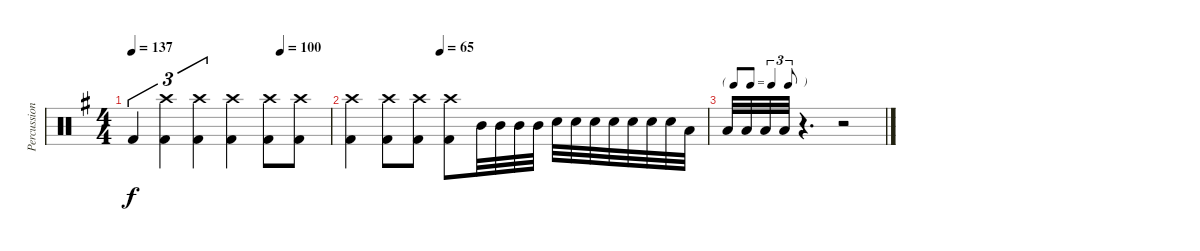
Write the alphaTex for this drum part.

\track ("Percussion" "Percussion") {instrument percussion}
\staff {score}
\articulation defaults
\ts (4 4)
\tempo 137
\tempo (100 0.75)
\clef neutral
\ks g "Kick (hit) 2".4{tu (3 2) dy f}
("Crash high (hit)" "Kick (hit) 2").4{tu (3 2)} ("Crash high (hit)" "Kick (hit) 2").4{tu (3 2)} ("Crash high (hit)" "Kick (hit) 2").4 ("Crash high (hit)" "Kick (hit) 2").8 ("Crash high (hit)" "Kick (hit) 2").8 |
\tempo (65 0.25)
("Crash high (hit)" "Kick (hit) 2").4 ("Crash high (hit)" "Kick (hit) 2").8 ("Crash high (hit)" "Kick (hit) 2").8 ("Crash high (hit)" "Kick (hit) 2").8 "Mid Tom (hit)".32 "Mid Tom (hit)".32 "Mid Tom (hit)".32 "Mid Tom (hit)".32 "Snare (hit) 2".32 "Snare (hit) 2".32 "Snare (hit) 2".32 "Snare (hit) 2".32 "Snare (hit) 2".32 "Snare (hit) 2".32 "Snare (hit) 2".32 "Low Floor Tom (hit)".32 |
\tf triplet8th "Low Floor Tom (hit)".32 "Low Floor Tom (hit)".32 "Low Floor Tom (hit)".32 "Low Floor Tom (hit)".32
r.4{d} r.2
